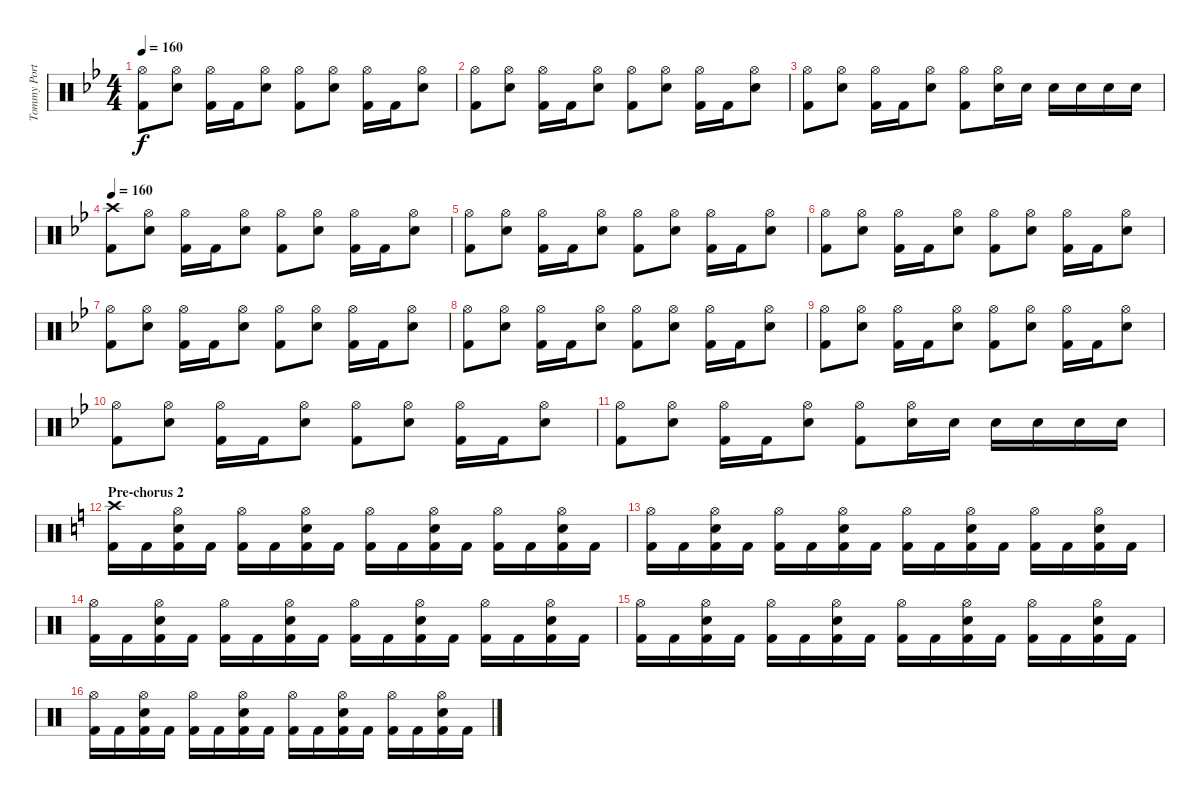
\track ("Tommy Portimo" "Tommy Port") {instrument percussion}
\staff {score}
\articulation defaults
\ts (4 4)
\tempo 160
\clef neutral
\ks gminor
("Hi-Hat (open)" "Kick (hit) 2").8{dy f} ("Hi-Hat (open)" "Snare (hit) 2").8 ("Hi-Hat (open)" "Kick (hit) 2").16 "Kick (hit) 2".16 ("Hi-Hat (open)" "Snare (hit) 2").8 ("Hi-Hat (open)" "Kick (hit) 2").8 ("Hi-Hat (open)" "Snare (hit) 2").8 ("Hi-Hat (open)" "Kick (hit) 2").16 "Kick (hit) 2".16 ("Hi-Hat (open)" "Snare (hit) 2").8 |
("Hi-Hat (open)" "Kick (hit) 2").8 ("Hi-Hat (open)" "Snare (hit) 2").8 ("Hi-Hat (open)" "Kick (hit) 2").16 "Kick (hit) 2".16 ("Hi-Hat (open)" "Snare (hit) 2").8 ("Hi-Hat (open)" "Kick (hit) 2").8 ("Hi-Hat (open)" "Snare (hit) 2").8 ("Hi-Hat (open)" "Kick (hit) 2").16 "Kick (hit) 2".16 ("Hi-Hat (open)" "Snare (hit) 2").8 |
("Hi-Hat (open)" "Kick (hit) 2").8 ("Hi-Hat (open)" "Snare (hit) 2").8 ("Hi-Hat (open)" "Kick (hit) 2").16 "Kick (hit) 2".16 ("Hi-Hat (open)" "Snare (hit) 2").8 ("Hi-Hat (open)" "Kick (hit) 2").8 ("Hi-Hat (open)" "Snare (hit) 2").16 "Snare (hit) 2".16 "Snare (hit) 2".16 "Snare (hit) 2".16 "Snare (hit) 2".16 "Snare (hit) 2".16 |
\tempo 160
("Crash high (hit)" "Kick (hit) 2").8 ("Hi-Hat (open)" "Snare (hit) 2").8 ("Hi-Hat (open)" "Kick (hit) 2").16 "Kick (hit) 2".16 ("Hi-Hat (open)" "Snare (hit) 2").8 ("Hi-Hat (open)" "Kick (hit) 2").8 ("Hi-Hat (open)" "Snare (hit) 2").8 ("Hi-Hat (open)" "Kick (hit) 2").16 "Kick (hit) 2".16 ("Hi-Hat (open)" "Snare (hit) 2").8 |
("Hi-Hat (open)" "Kick (hit) 2").8 ("Hi-Hat (open)" "Snare (hit) 2").8 ("Hi-Hat (open)" "Kick (hit) 2").16 "Kick (hit) 2".16 ("Hi-Hat (open)" "Snare (hit) 2").8 ("Hi-Hat (open)" "Kick (hit) 2").8 ("Hi-Hat (open)" "Snare (hit) 2").8 ("Hi-Hat (open)" "Kick (hit) 2").16 "Kick (hit) 2".16 ("Hi-Hat (open)" "Snare (hit) 2").8 |
("Hi-Hat (open)" "Kick (hit) 2").8 ("Hi-Hat (open)" "Snare (hit) 2").8 ("Hi-Hat (open)" "Kick (hit) 2").16 "Kick (hit) 2".16 ("Hi-Hat (open)" "Snare (hit) 2").8 ("Hi-Hat (open)" "Kick (hit) 2").8 ("Hi-Hat (open)" "Snare (hit) 2").8 ("Hi-Hat (open)" "Kick (hit) 2").16 "Kick (hit) 2".16 ("Hi-Hat (open)" "Snare (hit) 2").8 |
("Hi-Hat (open)" "Kick (hit) 2").8 ("Hi-Hat (open)" "Snare (hit) 2").8 ("Hi-Hat (open)" "Kick (hit) 2").16 "Kick (hit) 2".16 ("Hi-Hat (open)" "Snare (hit) 2").8 ("Hi-Hat (open)" "Kick (hit) 2").8 ("Hi-Hat (open)" "Snare (hit) 2").8 ("Hi-Hat (open)" "Kick (hit) 2").16 "Kick (hit) 2".16 ("Hi-Hat (open)" "Snare (hit) 2").8 |
("Hi-Hat (open)" "Kick (hit) 2").8 ("Hi-Hat (open)" "Snare (hit) 2").8 ("Hi-Hat (open)" "Kick (hit) 2").16 "Kick (hit) 2".16 ("Hi-Hat (open)" "Snare (hit) 2").8 ("Hi-Hat (open)" "Kick (hit) 2").8 ("Hi-Hat (open)" "Snare (hit) 2").8 ("Hi-Hat (open)" "Kick (hit) 2").16 "Kick (hit) 2".16 ("Hi-Hat (open)" "Snare (hit) 2").8 |
("Hi-Hat (open)" "Kick (hit) 2").8 ("Hi-Hat (open)" "Snare (hit) 2").8 ("Hi-Hat (open)" "Kick (hit) 2").16 "Kick (hit) 2".16 ("Hi-Hat (open)" "Snare (hit) 2").8 ("Hi-Hat (open)" "Kick (hit) 2").8 ("Hi-Hat (open)" "Snare (hit) 2").8 ("Hi-Hat (open)" "Kick (hit) 2").16 "Kick (hit) 2".16 ("Hi-Hat (open)" "Snare (hit) 2").8 |
("Hi-Hat (open)" "Kick (hit) 2").8 ("Hi-Hat (open)" "Snare (hit) 2").8 ("Hi-Hat (open)" "Kick (hit) 2").16 "Kick (hit) 2".16 ("Hi-Hat (open)" "Snare (hit) 2").8 ("Hi-Hat (open)" "Kick (hit) 2").8 ("Hi-Hat (open)" "Snare (hit) 2").8 ("Hi-Hat (open)" "Kick (hit) 2").16 "Kick (hit) 2".16 ("Hi-Hat (open)" "Snare (hit) 2").8 |
("Hi-Hat (open)" "Kick (hit) 2").8 ("Hi-Hat (open)" "Snare (hit) 2").8 ("Hi-Hat (open)" "Kick (hit) 2").16 "Kick (hit) 2".16 ("Hi-Hat (open)" "Snare (hit) 2").8 ("Hi-Hat (open)" "Kick (hit) 2").8 ("Hi-Hat (open)" "Snare (hit) 2").16 "Snare (hit) 2".16 "Snare (hit) 2".16 "Snare (hit) 2".16 "Snare (hit) 2".16 "Snare (hit) 2".16 |
\section ("" "Pre-chorus 2")
\ks c
("Crash high (hit)" "Kick (hit) 2").16 "Kick (hit) 2".16 ("Hi-Hat (open)" "Snare (hit) 2" "Kick (hit) 2").16 "Kick (hit) 2".16 ("Hi-Hat (open)" "Kick (hit) 2").16 "Kick (hit) 2".16 ("Hi-Hat (open)" "Snare (hit) 2" "Kick (hit) 2").16 "Kick (hit) 2".16 ("Hi-Hat (open)" "Kick (hit) 2").16 "Kick (hit) 2".16 ("Hi-Hat (open)" "Snare (hit) 2" "Kick (hit) 2").16 "Kick (hit) 2".16 ("Hi-Hat (open)" "Kick (hit) 2").16 "Kick (hit) 2".16 ("Hi-Hat (open)" "Snare (hit) 2" "Kick (hit) 2").16 "Kick (hit) 2".16 |
("Hi-Hat (open)" "Kick (hit) 2").16 "Kick (hit) 2".16 ("Hi-Hat (open)" "Snare (hit) 2" "Kick (hit) 2").16 "Kick (hit) 2".16 ("Hi-Hat (open)" "Kick (hit) 2").16 "Kick (hit) 2".16 ("Hi-Hat (open)" "Snare (hit) 2" "Kick (hit) 2").16 "Kick (hit) 2".16 ("Hi-Hat (open)" "Kick (hit) 2").16 "Kick (hit) 2".16 ("Hi-Hat (open)" "Snare (hit) 2" "Kick (hit) 2").16 "Kick (hit) 2".16 ("Hi-Hat (open)" "Kick (hit) 2").16 "Kick (hit) 2".16 ("Hi-Hat (open)" "Snare (hit) 2" "Kick (hit) 2").16 "Kick (hit) 2".16 |
("Hi-Hat (open)" "Kick (hit) 2").16 "Kick (hit) 2".16 ("Hi-Hat (open)" "Snare (hit) 2" "Kick (hit) 2").16 "Kick (hit) 2".16 ("Hi-Hat (open)" "Kick (hit) 2").16 "Kick (hit) 2".16 ("Hi-Hat (open)" "Snare (hit) 2" "Kick (hit) 2").16 "Kick (hit) 2".16 ("Hi-Hat (open)" "Kick (hit) 2").16 "Kick (hit) 2".16 ("Hi-Hat (open)" "Snare (hit) 2" "Kick (hit) 2").16 "Kick (hit) 2".16 ("Hi-Hat (open)" "Kick (hit) 2").16 "Kick (hit) 2".16 ("Hi-Hat (open)" "Snare (hit) 2" "Kick (hit) 2").16 "Kick (hit) 2".16 |
("Hi-Hat (open)" "Kick (hit) 2").16 "Kick (hit) 2".16 ("Hi-Hat (open)" "Snare (hit) 2" "Kick (hit) 2").16 "Kick (hit) 2".16 ("Hi-Hat (open)" "Kick (hit) 2").16 "Kick (hit) 2".16 ("Hi-Hat (open)" "Snare (hit) 2" "Kick (hit) 2").16 "Kick (hit) 2".16 ("Hi-Hat (open)" "Kick (hit) 2").16 "Kick (hit) 2".16 ("Hi-Hat (open)" "Snare (hit) 2" "Kick (hit) 2").16 "Kick (hit) 2".16 ("Hi-Hat (open)" "Kick (hit) 2").16 "Kick (hit) 2".16 ("Hi-Hat (open)" "Snare (hit) 2" "Kick (hit) 2").16 "Kick (hit) 2".16 |
("Hi-Hat (open)" "Kick (hit) 2").16 "Kick (hit) 2".16 ("Hi-Hat (open)" "Snare (hit) 2" "Kick (hit) 2").16 "Kick (hit) 2".16 ("Hi-Hat (open)" "Kick (hit) 2").16 "Kick (hit) 2".16 ("Hi-Hat (open)" "Snare (hit) 2" "Kick (hit) 2").16 "Kick (hit) 2".16 ("Hi-Hat (open)" "Kick (hit) 2").16 "Kick (hit) 2".16 ("Hi-Hat (open)" "Snare (hit) 2" "Kick (hit) 2").16 "Kick (hit) 2".16 ("Hi-Hat (open)" "Kick (hit) 2").16 "Kick (hit) 2".16 ("Hi-Hat (open)" "Snare (hit) 2" "Kick (hit) 2").16 "Kick (hit) 2".16
